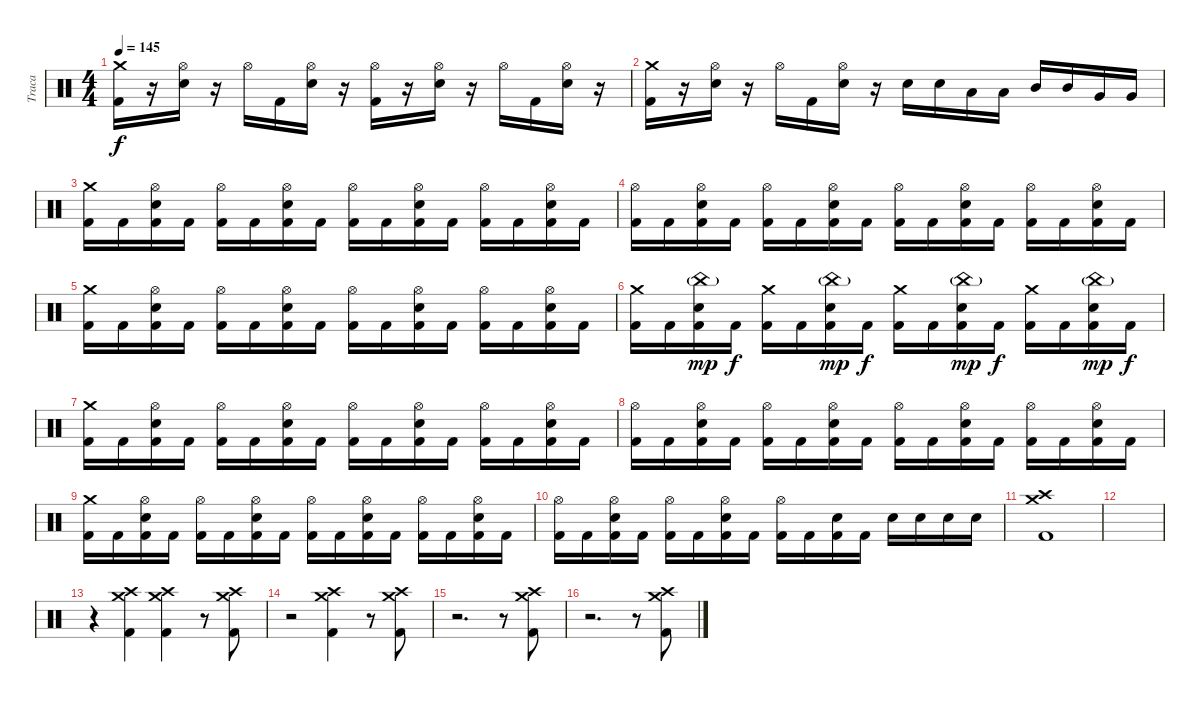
\track ("Traca" "Traca") {instrument percussion}
\staff {score}
\articulation defaults
\ts (4 4)
\tempo 145
\clef neutral
\ks c
("Crash medium (hit)" "Kick (hit) 2").16{dy f} r.16 ("Hi-Hat (open)" "Snare (hit) 2").16 r.16 "Hi-Hat (open)".16 "Kick (hit) 2".16 ("Hi-Hat (open)" "Snare (hit) 2").16 r.16 ("Hi-Hat (open)" "Kick (hit) 2").16 r.16 ("Hi-Hat (open)" "Snare (hit) 2").16 r.16 "Hi-Hat (open)".16 "Kick (hit) 2".16 ("Hi-Hat (open)" "Snare (hit) 2").16 r.16 |
("Crash medium (hit)" "Kick (hit) 2").16 r.16 ("Hi-Hat (open)" "Snare (hit) 2").16 r.16 "Hi-Hat (open)".16 "Kick (hit) 2".16 ("Hi-Hat (open)" "Snare (hit) 2").16 r.16 "Snare (hit) 2".16 "Snare (hit) 2".16 "Low Tom (hit)".16 "Low Tom (hit)".16 "Mid Tom (hit)".16 "Mid Tom (hit)".16 "Very Low Tom (hit)".16 "Very Low Tom (hit)".16 |
("Crash medium (hit)" "Kick (hit) 2").16 "Kick (hit) 2".16 ("Hi-Hat (open)" "Snare (hit) 2" "Kick (hit) 2").16 "Kick (hit) 2".16 ("Hi-Hat (open)" "Kick (hit) 2").16 "Kick (hit) 2".16 ("Hi-Hat (open)" "Snare (hit) 2" "Kick (hit) 2").16 "Kick (hit) 2".16 ("Hi-Hat (open)" "Kick (hit) 2").16 "Kick (hit) 2".16 ("Hi-Hat (open)" "Snare (hit) 2" "Kick (hit) 2").16 "Kick (hit) 2".16 ("Hi-Hat (open)" "Kick (hit) 2").16 "Kick (hit) 2".16 ("Hi-Hat (open)" "Snare (hit) 2" "Kick (hit) 2").16 "Kick (hit) 2".16 |
("Hi-Hat (open)" "Kick (hit) 2").16 "Kick (hit) 2".16 ("Hi-Hat (open)" "Snare (hit) 2" "Kick (hit) 2").16 "Kick (hit) 2".16 ("Hi-Hat (open)" "Kick (hit) 2").16 "Kick (hit) 2".16 ("Hi-Hat (open)" "Snare (hit) 2" "Kick (hit) 2").16 "Kick (hit) 2".16 ("Hi-Hat (open)" "Kick (hit) 2").16 "Kick (hit) 2".16 ("Hi-Hat (open)" "Snare (hit) 2" "Kick (hit) 2").16 "Kick (hit) 2".16 ("Hi-Hat (open)" "Kick (hit) 2").16 "Kick (hit) 2".16 ("Hi-Hat (open)" "Snare (hit) 2" "Kick (hit) 2").16 "Kick (hit) 2".16 |
("Crash medium (hit)" "Kick (hit) 2").16 "Kick (hit) 2".16 ("Hi-Hat (open)" "Snare (hit) 2" "Kick (hit) 2").16 "Kick (hit) 2".16 ("Hi-Hat (open)" "Kick (hit) 2").16 "Kick (hit) 2".16 ("Hi-Hat (open)" "Snare (hit) 2" "Kick (hit) 2").16 "Kick (hit) 2".16 ("Hi-Hat (open)" "Kick (hit) 2").16 "Kick (hit) 2".16 ("Hi-Hat (open)" "Snare (hit) 2" "Kick (hit) 2").16 "Kick (hit) 2".16 ("Hi-Hat (open)" "Kick (hit) 2").16 "Kick (hit) 2".16 ("Hi-Hat (open)" "Snare (hit) 2" "Kick (hit) 2").16 "Kick (hit) 2".16 |
("Crash medium (hit)" "Kick (hit) 2").16 "Kick (hit) 2".16 ("China (hit)"{g} "Snare (hit) 2" "Kick (hit) 2").16{dy mp} "Kick (hit) 2".16{dy f} ("Crash medium (hit)" "Kick (hit) 2").16 "Kick (hit) 2".16 ("China (hit)"{g} "Snare (hit) 2" "Kick (hit) 2").16{dy mp} "Kick (hit) 2".16{dy f} ("Crash medium (hit)" "Kick (hit) 2").16 "Kick (hit) 2".16 ("China (hit)"{g} "Snare (hit) 2" "Kick (hit) 2").16{dy mp} "Kick (hit) 2".16{dy f} ("Crash medium (hit)" "Kick (hit) 2").16 "Kick (hit) 2".16 ("China (hit)"{g} "Snare (hit) 2" "Kick (hit) 2").16{dy mp} "Kick (hit) 2".16{dy f} |
("Crash medium (hit)" "Kick (hit) 2").16 "Kick (hit) 2".16 ("Hi-Hat (open)" "Snare (hit) 2" "Kick (hit) 2").16 "Kick (hit) 2".16 ("Hi-Hat (open)" "Kick (hit) 2").16 "Kick (hit) 2".16 ("Hi-Hat (open)" "Snare (hit) 2" "Kick (hit) 2").16 "Kick (hit) 2".16 ("Hi-Hat (open)" "Kick (hit) 2").16 "Kick (hit) 2".16 ("Hi-Hat (open)" "Snare (hit) 2" "Kick (hit) 2").16 "Kick (hit) 2".16 ("Hi-Hat (open)" "Kick (hit) 2").16 "Kick (hit) 2".16 ("Hi-Hat (open)" "Snare (hit) 2" "Kick (hit) 2").16 "Kick (hit) 2".16 |
("Hi-Hat (open)" "Kick (hit) 2").16 "Kick (hit) 2".16 ("Hi-Hat (open)" "Snare (hit) 2" "Kick (hit) 2").16 "Kick (hit) 2".16 ("Hi-Hat (open)" "Kick (hit) 2").16 "Kick (hit) 2".16 ("Hi-Hat (open)" "Snare (hit) 2" "Kick (hit) 2").16 "Kick (hit) 2".16 ("Hi-Hat (open)" "Kick (hit) 2").16 "Kick (hit) 2".16 ("Hi-Hat (open)" "Snare (hit) 2" "Kick (hit) 2").16 "Kick (hit) 2".16 ("Hi-Hat (open)" "Kick (hit) 2").16 "Kick (hit) 2".16 ("Hi-Hat (open)" "Snare (hit) 2" "Kick (hit) 2").16 "Kick (hit) 2".16 |
("Crash medium (hit)" "Kick (hit) 2").16 "Kick (hit) 2".16 ("Hi-Hat (open)" "Snare (hit) 2" "Kick (hit) 2").16 "Kick (hit) 2".16 ("Hi-Hat (open)" "Kick (hit) 2").16 "Kick (hit) 2".16 ("Hi-Hat (open)" "Snare (hit) 2" "Kick (hit) 2").16 "Kick (hit) 2".16 ("Hi-Hat (open)" "Kick (hit) 2").16 "Kick (hit) 2".16 ("Hi-Hat (open)" "Snare (hit) 2" "Kick (hit) 2").16 "Kick (hit) 2".16 ("Hi-Hat (open)" "Kick (hit) 2").16 "Kick (hit) 2".16 ("Hi-Hat (open)" "Snare (hit) 2" "Kick (hit) 2").16 "Kick (hit) 2".16 |
("Hi-Hat (open)" "Kick (hit) 2").16 "Kick (hit) 2".16 ("Hi-Hat (open)" "Snare (hit) 2" "Kick (hit) 2").16 "Kick (hit) 2".16 ("Hi-Hat (open)" "Kick (hit) 2").16 "Kick (hit) 2".16 ("Hi-Hat (open)" "Snare (hit) 2" "Kick (hit) 2").16 "Kick (hit) 2".16 ("Hi-Hat (open)" "Kick (hit) 2").16 "Kick (hit) 2".16 ("Snare (hit) 2" "Kick (hit) 2").16 "Kick (hit) 2".16 "Snare (hit) 2".16 "Snare (hit) 2".16 "Snare (hit) 2".16 "Snare (hit) 2".16 |
("Crash high (hit)" "Crash medium (hit)" "Kick (hit) 2").1 |
|
r.4 ("Crash high (hit)" "Crash medium (hit)" "Kick (hit) 2").4 ("Crash high (hit)" "Crash medium (hit)" "Kick (hit) 2").4 r.8 ("Crash high (hit)" "Crash medium (hit)" "Kick (hit) 2").8 |
r.2 ("Crash high (hit)" "Crash medium (hit)" "Kick (hit) 2").4 r.8 ("Crash high (hit)" "Crash medium (hit)" "Kick (hit) 2").8 |
r.2{d} r.8 ("Crash high (hit)" "Crash medium (hit)" "Kick (hit) 2").8 |
r.2{d} r.8 ("Crash high (hit)" "Crash medium (hit)" "Kick (hit) 2").8
